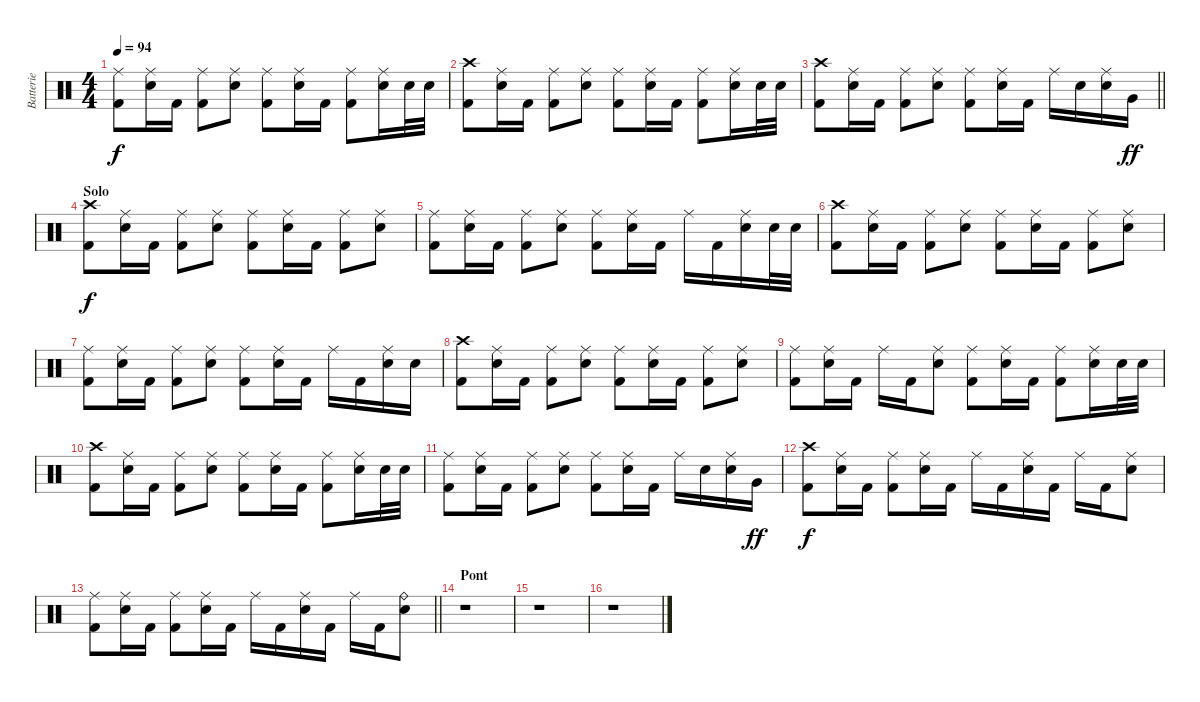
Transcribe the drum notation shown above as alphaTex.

\track ("Batterie" "Batterie") {instrument percussion}
\staff {score}
\articulation defaults
\ts (4 4)
\tempo 94
\clef neutral
\ks c
("Ride (middle)" "Kick (hit) 2").8{dy f} ("Ride (middle)" "Electric Snare (hit)").16 "Kick (hit) 2".16 ("Ride (middle)" "Kick (hit) 2").8 ("Ride (middle)" "Electric Snare (hit)").8 ("Ride (middle)" "Kick (hit) 2").8 ("Ride (middle)" "Electric Snare (hit)").16 "Kick (hit) 2".16 ("Ride (middle)" "Kick (hit) 2").8 ("Ride (middle)" "Electric Snare (hit)").16 "Electric Snare (hit)".32 "Electric Snare (hit)".32 |
("Crash high (hit)" "Kick (hit) 2").8 ("Ride (middle)" "Electric Snare (hit)").16 "Kick (hit) 2".16 ("Ride (middle)" "Kick (hit) 2").8 ("Ride (middle)" "Electric Snare (hit)").8 ("Ride (middle)" "Kick (hit) 2").8 ("Ride (middle)" "Electric Snare (hit)").16 "Kick (hit) 2".16 ("Ride (middle)" "Kick (hit) 2").8 ("Ride (middle)" "Electric Snare (hit)").16 "Electric Snare (hit)".32 "Electric Snare (hit)".32 |
\barLineRight lightlight
("Crash high (hit)" "Kick (hit) 2").8 ("Ride (middle)" "Electric Snare (hit)").16 "Kick (hit) 2".16 ("Ride (middle)" "Kick (hit) 2").8 ("Ride (middle)" "Electric Snare (hit)").8 ("Ride (middle)" "Kick (hit) 2").8 ("Ride (middle)" "Electric Snare (hit)").16 "Kick (hit) 2".16 "Ride (middle)".16 "Electric Snare (hit)".16 ("Ride (middle)" "Electric Snare (hit)").16 "Very Low Tom (hit)".16{dy ff} |
\section ("" "Solo")
("Crash high (hit)" "Kick (hit) 2").8{dy f} ("Ride (middle)" "Electric Snare (hit)").16 "Kick (hit) 2".16 ("Ride (middle)" "Kick (hit) 2").8 ("Ride (middle)" "Electric Snare (hit)").8 ("Ride (middle)" "Kick (hit) 2").8 ("Ride (middle)" "Electric Snare (hit)").16 "Kick (hit) 2".16 ("Ride (middle)" "Kick (hit) 2").8 ("Ride (middle)" "Electric Snare (hit)").8 |
("Ride (middle)" "Kick (hit) 2").8 ("Ride (middle)" "Electric Snare (hit)").16 "Kick (hit) 2".16 ("Ride (middle)" "Kick (hit) 2").8 ("Ride (middle)" "Electric Snare (hit)").8 ("Ride (middle)" "Kick (hit) 2").8 ("Ride (middle)" "Electric Snare (hit)").16 "Kick (hit) 2".16 "Ride (middle)".16 "Kick (hit) 2".16 ("Ride (middle)" "Electric Snare (hit)").16 "Electric Snare (hit)".32 "Electric Snare (hit)".32 |
("Crash high (hit)" "Kick (hit) 2").8 ("Ride (middle)" "Electric Snare (hit)").16 "Kick (hit) 2".16 ("Ride (middle)" "Kick (hit) 2").8 ("Ride (middle)" "Electric Snare (hit)").8 ("Ride (middle)" "Kick (hit) 2").8 ("Ride (middle)" "Electric Snare (hit)").16 "Kick (hit) 2".16 ("Ride (middle)" "Kick (hit) 2").8 ("Ride (middle)" "Electric Snare (hit)").8 |
("Ride (middle)" "Kick (hit) 2").8 ("Ride (middle)" "Electric Snare (hit)").16 "Kick (hit) 2".16 ("Ride (middle)" "Kick (hit) 2").8 ("Ride (middle)" "Electric Snare (hit)").8 ("Ride (middle)" "Kick (hit) 2").8 ("Ride (middle)" "Electric Snare (hit)").16 "Kick (hit) 2".16 "Ride (middle)".16 "Kick (hit) 2".16 ("Ride (middle)" "Electric Snare (hit)").16 "Electric Snare (hit)".16 |
("Crash high (hit)" "Kick (hit) 2").8 ("Ride (middle)" "Electric Snare (hit)").16 "Kick (hit) 2".16 ("Ride (middle)" "Kick (hit) 2").8 ("Ride (middle)" "Electric Snare (hit)").8 ("Ride (middle)" "Kick (hit) 2").8 ("Ride (middle)" "Electric Snare (hit)").16 "Kick (hit) 2".16 ("Ride (middle)" "Kick (hit) 2").8 ("Ride (middle)" "Electric Snare (hit)").8 |
("Ride (middle)" "Kick (hit) 2").8 ("Ride (middle)" "Electric Snare (hit)").16 "Kick (hit) 2".16 "Ride (middle)".16 "Kick (hit) 2".16 ("Ride (middle)" "Electric Snare (hit)").8 ("Ride (middle)" "Kick (hit) 2").8 ("Ride (middle)" "Electric Snare (hit)").16 "Kick (hit) 2".16 ("Ride (middle)" "Kick (hit) 2").8 ("Ride (middle)" "Electric Snare (hit)").16 "Electric Snare (hit)".32 "Electric Snare (hit)".32 |
("Crash high (hit)" "Kick (hit) 2").8 ("Ride (middle)" "Electric Snare (hit)").16 "Kick (hit) 2".16 ("Ride (middle)" "Kick (hit) 2").8 ("Ride (middle)" "Electric Snare (hit)").8 ("Ride (middle)" "Kick (hit) 2").8 ("Ride (middle)" "Electric Snare (hit)").16 "Kick (hit) 2".16 ("Ride (middle)" "Kick (hit) 2").8 ("Ride (middle)" "Electric Snare (hit)").16 "Electric Snare (hit)".32 "Electric Snare (hit)".32 |
("Ride (middle)" "Kick (hit) 2").8 ("Ride (middle)" "Electric Snare (hit)").16 "Kick (hit) 2".16 ("Ride (middle)" "Kick (hit) 2").8 ("Ride (middle)" "Electric Snare (hit)").8 ("Ride (middle)" "Kick (hit) 2").8 ("Ride (middle)" "Electric Snare (hit)").16 "Kick (hit) 2".16 "Ride (middle)".16 "Electric Snare (hit)".16 ("Ride (middle)" "Electric Snare (hit)").16 "Very Low Tom (hit)".16{dy ff} |
("Crash high (hit)" "Kick (hit) 2").8{dy f} ("Ride (middle)" "Electric Snare (hit)").16 "Kick (hit) 2".16 ("Ride (middle)" "Kick (hit) 2").8 ("Ride (middle)" "Electric Snare (hit)").16 "Kick (hit) 2".16 "Ride (middle)".16 "Kick (hit) 2".16 ("Ride (middle)" "Electric Snare (hit)").16 "Kick (hit) 2".16 "Ride (middle)".16 "Kick (hit) 2".16 ("Ride (middle)" "Electric Snare (hit)").8 |
\barLineRight lightlight
("Ride (middle)" "Kick (hit) 2").8 ("Ride (middle)" "Electric Snare (hit)").16 "Kick (hit) 2".16 ("Ride (middle)" "Kick (hit) 2").8 ("Ride (middle)" "Electric Snare (hit)").16 "Kick (hit) 2".16 "Ride (middle)".16 "Kick (hit) 2".16 ("Ride (middle)" "Electric Snare (hit)").16 "Kick (hit) 2".16 "Ride (middle)".16 "Kick (hit) 2".16 ("Ride (bell)" "Electric Snare (hit)").8 |
\section ("" "Pont")
r.1 |
r.1 |
r.1
